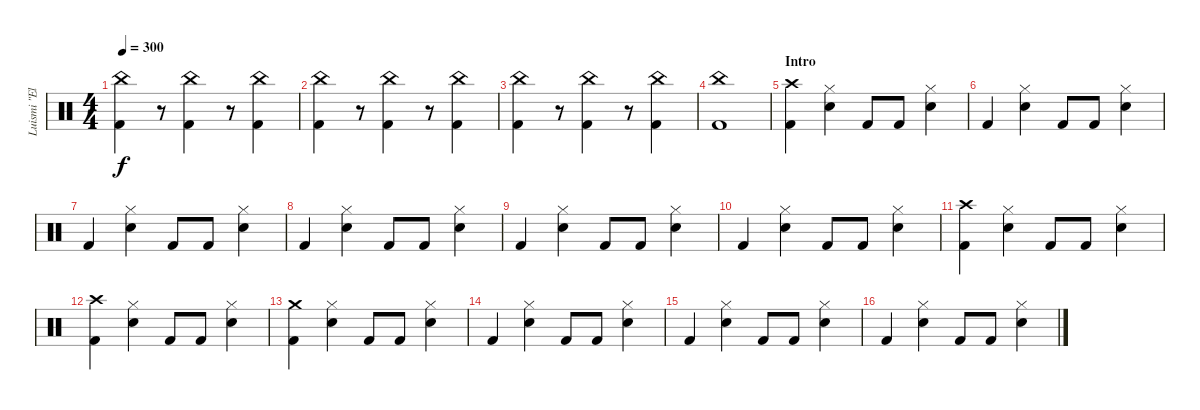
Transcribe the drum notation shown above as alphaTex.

\track ("Luismi \"El Papi\"" "Luismi \"El") {instrument percussion}
\staff {score}
\articulation defaults
\ts (4 4)
\tempo 300
\clef neutral
\ks c
("China (hit)" "Kick (hit) 2").4{dy f} r.8 ("China (hit)" "Kick (hit) 2").4 r.8 ("China (hit)" "Kick (hit) 2").4 |
("China (hit)" "Kick (hit) 2").4 r.8 ("China (hit)" "Kick (hit) 2").4 r.8 ("China (hit)" "Kick (hit) 2").4 |
("China (hit)" "Kick (hit) 2").4 r.8 ("China (hit)" "Kick (hit) 2").4 r.8 ("China (hit)" "Kick (hit) 2").4 |
("China (hit)" "Kick (hit) 2").1 |
\section ("" "Intro")
("Crash high (hit)" "Kick (hit) 2").4 ("Hi-Hat (closed)" "Snare (hit) 2").4 "Kick (hit) 2".8 "Kick (hit) 2".8 ("Hi-Hat (closed)" "Snare (hit) 2").4 |
"Kick (hit) 2".4 ("Hi-Hat (closed)" "Snare (hit) 2").4 "Kick (hit) 2".8 "Kick (hit) 2".8 ("Hi-Hat (closed)" "Snare (hit) 2").4 |
"Kick (hit) 2".4 ("Hi-Hat (closed)" "Snare (hit) 2").4 "Kick (hit) 2".8 "Kick (hit) 2".8 ("Hi-Hat (closed)" "Snare (hit) 2").4 |
"Kick (hit) 2".4 ("Hi-Hat (closed)" "Snare (hit) 2").4 "Kick (hit) 2".8 "Kick (hit) 2".8 ("Hi-Hat (closed)" "Snare (hit) 2").4 |
"Kick (hit) 2".4 ("Hi-Hat (closed)" "Snare (hit) 2").4 "Kick (hit) 2".8 "Kick (hit) 2".8 ("Hi-Hat (closed)" "Snare (hit) 2").4 |
"Kick (hit) 2".4 ("Hi-Hat (closed)" "Snare (hit) 2").4 "Kick (hit) 2".8 "Kick (hit) 2".8 ("Hi-Hat (closed)" "Snare (hit) 2").4 |
("Crash high (hit)" "Kick (hit) 2").4 ("Hi-Hat (closed)" "Snare (hit) 2").4 "Kick (hit) 2".8 "Kick (hit) 2".8 ("Hi-Hat (closed)" "Snare (hit) 2").4 |
("Crash high (hit)" "Kick (hit) 2").4 ("Hi-Hat (closed)" "Snare (hit) 2").4 "Kick (hit) 2".8 "Kick (hit) 2".8 ("Hi-Hat (closed)" "Snare (hit) 2").4 |
("Crash medium (hit)" "Kick (hit) 2").4 ("Hi-Hat (closed)" "Snare (hit) 2").4 "Kick (hit) 2".8 "Kick (hit) 2".8 ("Hi-Hat (closed)" "Snare (hit) 2").4 |
"Kick (hit) 2".4 ("Hi-Hat (closed)" "Snare (hit) 2").4 "Kick (hit) 2".8 "Kick (hit) 2".8 ("Hi-Hat (closed)" "Snare (hit) 2").4 |
"Kick (hit) 2".4 ("Hi-Hat (closed)" "Snare (hit) 2").4 "Kick (hit) 2".8 "Kick (hit) 2".8 ("Hi-Hat (closed)" "Snare (hit) 2").4 |
"Kick (hit) 2".4 ("Hi-Hat (closed)" "Snare (hit) 2").4 "Kick (hit) 2".8 "Kick (hit) 2".8 ("Hi-Hat (closed)" "Snare (hit) 2").4
